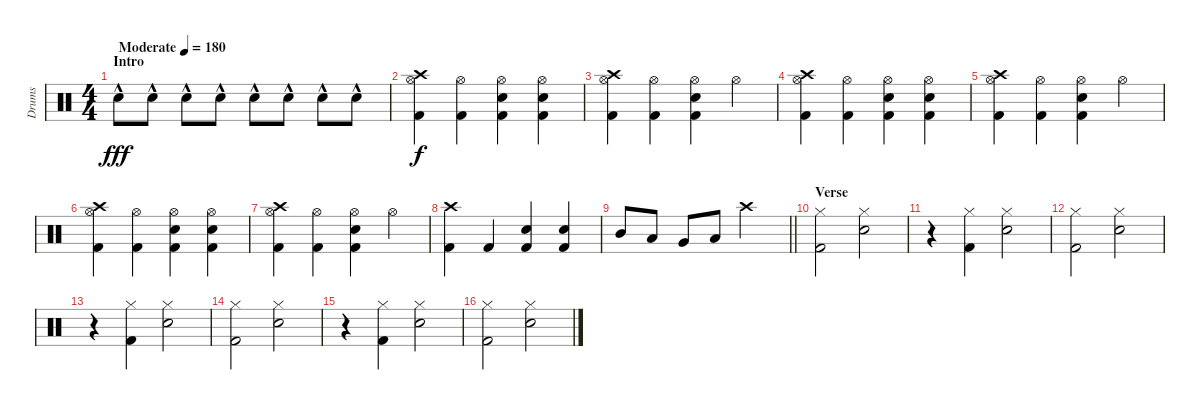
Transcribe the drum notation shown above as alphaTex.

\track ("Drums" "Drums") {instrument percussion}
\staff {score}
\articulation defaults
\ts (4 4)
\section ("" "Intro")
\tempo (180 "Moderate")
\clef neutral
\ks c "Electric Snare (hit)"{hac}.8{dy fff} "Electric Snare (hit)"{hac}.8 "Electric Snare (hit)"{hac}.8 "Electric Snare (hit)"{hac}.8 "Electric Snare (hit)"{hac}.8 "Electric Snare (hit)"{hac}.8 "Electric Snare (hit)"{hac}.8 "Electric Snare (hit)"{hac}.8
|
("Kick (hit) 2" "Crash high (hit)" "Hi-Hat (open)").4{dy f} ("Kick (hit) 2" "Hi-Hat (open)").4 ("Electric Snare (hit)" "Kick (hit) 2" "Hi-Hat (open)").4 ("Electric Snare (hit)" "Kick (hit) 2" "Hi-Hat (open)").4 |
("Kick (hit) 2" "Crash high (hit)" "Hi-Hat (open)").4 ("Kick (hit) 2" "Hi-Hat (open)").4 ("Electric Snare (hit)" "Kick (hit) 2" "Hi-Hat (open)").4 "Hi-Hat (open)".4 |
("Kick (hit) 2" "Crash high (hit)" "Hi-Hat (open)").4 ("Kick (hit) 2" "Hi-Hat (open)").4 ("Electric Snare (hit)" "Kick (hit) 2" "Hi-Hat (open)").4 ("Electric Snare (hit)" "Kick (hit) 2" "Hi-Hat (open)").4 |
("Kick (hit) 2" "Crash high (hit)" "Hi-Hat (open)").4 ("Kick (hit) 2" "Hi-Hat (open)").4 ("Electric Snare (hit)" "Kick (hit) 2" "Hi-Hat (open)").4 "Hi-Hat (open)".4 |
("Kick (hit) 2" "Crash high (hit)" "Hi-Hat (open)").4 ("Kick (hit) 2" "Hi-Hat (open)").4 ("Electric Snare (hit)" "Kick (hit) 2" "Hi-Hat (open)").4 ("Electric Snare (hit)" "Kick (hit) 2" "Hi-Hat (open)").4 |
("Kick (hit) 2" "Crash high (hit)" "Hi-Hat (open)").4 ("Kick (hit) 2" "Hi-Hat (open)").4 ("Electric Snare (hit)" "Kick (hit) 2" "Hi-Hat (open)").4 "Hi-Hat (open)".4 |
("Kick (hit) 2" "Crash high (hit)").4 "Kick (hit) 2".4 ("Electric Snare (hit)" "Kick (hit) 2").4 ("Electric Snare (hit)" "Kick (hit) 2").4 |
\barLineRight lightlight "Mid Tom (hit)".8 "Low Tom (hit)".8 "Very Low Tom (hit)".8 "Low Floor Tom (hit)".8 "Crash high (hit)".2
|
\section ("" "Verse")
("Hi-Hat (closed)" "Kick (hit) 2").2 ("Hi-Hat (closed)" "Electric Snare (hit)").2 |
r.4 ("Hi-Hat (closed)" "Kick (hit) 2").4 ("Hi-Hat (closed)" "Electric Snare (hit)").2 |
("Hi-Hat (closed)" "Kick (hit) 2").2 ("Hi-Hat (closed)" "Electric Snare (hit)").2 |
r.4 ("Hi-Hat (closed)" "Kick (hit) 2").4 ("Hi-Hat (closed)" "Electric Snare (hit)").2 |
("Hi-Hat (closed)" "Kick (hit) 2").2 ("Hi-Hat (closed)" "Electric Snare (hit)").2 |
r.4 ("Hi-Hat (closed)" "Kick (hit) 2").4 ("Hi-Hat (closed)" "Electric Snare (hit)").2 |
("Hi-Hat (closed)" "Kick (hit) 2").2 ("Hi-Hat (closed)" "Electric Snare (hit)").2
